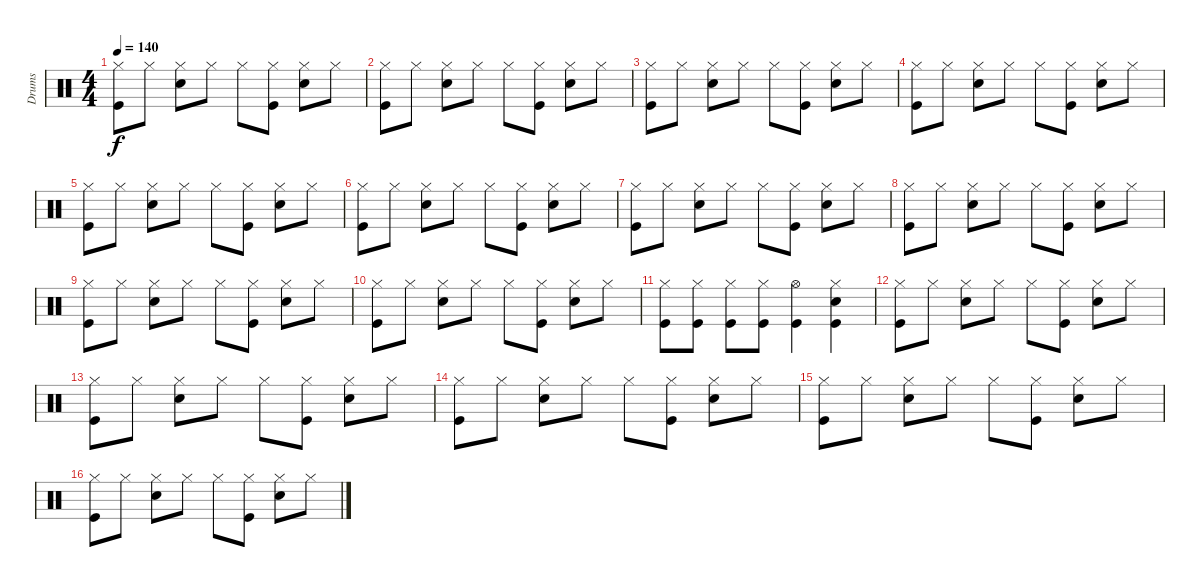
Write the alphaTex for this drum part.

\track ("Drums" "Drums") {instrument percussion}
\staff {score}
\articulation defaults
\ts (4 4)
\tempo 140
\clef neutral
\ks c
("Hi-Hat (closed)" "Kick (hit)").8{dy f} "Hi-Hat (closed)".8 ("Hi-Hat (closed)" "Snare (hit) 2").8 "Hi-Hat (closed)".8 "Hi-Hat (closed)".8 ("Hi-Hat (closed)" "Kick (hit)").8 ("Hi-Hat (closed)" "Snare (hit) 2").8 "Hi-Hat (closed)".8 |
("Hi-Hat (closed)" "Kick (hit)").8 "Hi-Hat (closed)".8 ("Hi-Hat (closed)" "Snare (hit) 2").8 "Hi-Hat (closed)".8 "Hi-Hat (closed)".8 ("Hi-Hat (closed)" "Kick (hit)").8 ("Hi-Hat (closed)" "Snare (hit) 2").8 "Hi-Hat (closed)".8 |
("Hi-Hat (closed)" "Kick (hit)").8 "Hi-Hat (closed)".8 ("Hi-Hat (closed)" "Snare (hit) 2").8 "Hi-Hat (closed)".8 "Hi-Hat (closed)".8 ("Hi-Hat (closed)" "Kick (hit)").8 ("Hi-Hat (closed)" "Snare (hit) 2").8 "Hi-Hat (closed)".8 |
("Hi-Hat (closed)" "Kick (hit)").8 "Hi-Hat (closed)".8 ("Hi-Hat (closed)" "Snare (hit) 2").8 "Hi-Hat (closed)".8 "Hi-Hat (closed)".8 ("Hi-Hat (closed)" "Kick (hit)").8 ("Hi-Hat (closed)" "Snare (hit) 2").8 "Hi-Hat (closed)".8 |
("Hi-Hat (closed)" "Kick (hit)").8 "Hi-Hat (closed)".8 ("Hi-Hat (closed)" "Snare (hit) 2").8 "Hi-Hat (closed)".8 "Hi-Hat (closed)".8 ("Hi-Hat (closed)" "Kick (hit)").8 ("Hi-Hat (closed)" "Snare (hit) 2").8 "Hi-Hat (closed)".8 |
("Hi-Hat (closed)" "Kick (hit)").8 "Hi-Hat (closed)".8 ("Hi-Hat (closed)" "Snare (hit) 2").8 "Hi-Hat (closed)".8 "Hi-Hat (closed)".8 ("Hi-Hat (closed)" "Kick (hit)").8 ("Hi-Hat (closed)" "Snare (hit) 2").8 "Hi-Hat (closed)".8 |
("Hi-Hat (closed)" "Kick (hit)").8 "Hi-Hat (closed)".8 ("Hi-Hat (closed)" "Snare (hit) 2").8 "Hi-Hat (closed)".8 "Hi-Hat (closed)".8 ("Hi-Hat (closed)" "Kick (hit)").8 ("Hi-Hat (closed)" "Snare (hit) 2").8 "Hi-Hat (closed)".8 |
("Hi-Hat (closed)" "Kick (hit)").8 "Hi-Hat (closed)".8 ("Hi-Hat (closed)" "Snare (hit) 2").8 "Hi-Hat (closed)".8 "Hi-Hat (closed)".8 ("Hi-Hat (closed)" "Kick (hit)").8 ("Hi-Hat (closed)" "Snare (hit) 2").8 "Hi-Hat (closed)".8 |
("Hi-Hat (closed)" "Kick (hit)").8 "Hi-Hat (closed)".8 ("Hi-Hat (closed)" "Snare (hit) 2").8 "Hi-Hat (closed)".8 "Hi-Hat (closed)".8 ("Hi-Hat (closed)" "Kick (hit)").8 ("Hi-Hat (closed)" "Snare (hit) 2").8 "Hi-Hat (closed)".8 |
("Hi-Hat (closed)" "Kick (hit)").8 "Hi-Hat (closed)".8 ("Hi-Hat (closed)" "Snare (hit) 2").8 "Hi-Hat (closed)".8 "Hi-Hat (closed)".8 ("Hi-Hat (closed)" "Kick (hit)").8 ("Hi-Hat (closed)" "Snare (hit) 2").8 "Hi-Hat (closed)".8 |
("Hi-Hat (closed)" "Kick (hit)").8 ("Hi-Hat (closed)" "Kick (hit)").8 ("Hi-Hat (closed)" "Kick (hit)").8 ("Hi-Hat (closed)" "Kick (hit)").8 ("Hi-Hat (open)" "Kick (hit)").4 ("Hi-Hat (closed)" "Snare (hit) 2" "Kick (hit)").4 |
("Hi-Hat (closed)" "Kick (hit)").8 "Hi-Hat (closed)".8 ("Hi-Hat (closed)" "Snare (hit) 2").8 "Hi-Hat (closed)".8 "Hi-Hat (closed)".8 ("Hi-Hat (closed)" "Kick (hit)").8 ("Hi-Hat (closed)" "Snare (hit) 2").8 "Hi-Hat (closed)".8 |
("Hi-Hat (closed)" "Kick (hit)").8 "Hi-Hat (closed)".8 ("Hi-Hat (closed)" "Snare (hit) 2").8 "Hi-Hat (closed)".8 "Hi-Hat (closed)".8 ("Hi-Hat (closed)" "Kick (hit)").8 ("Hi-Hat (closed)" "Snare (hit) 2").8 "Hi-Hat (closed)".8 |
("Hi-Hat (closed)" "Kick (hit)").8 "Hi-Hat (closed)".8 ("Hi-Hat (closed)" "Snare (hit) 2").8 "Hi-Hat (closed)".8 "Hi-Hat (closed)".8 ("Hi-Hat (closed)" "Kick (hit)").8 ("Hi-Hat (closed)" "Snare (hit) 2").8 "Hi-Hat (closed)".8 |
("Hi-Hat (closed)" "Kick (hit)").8 "Hi-Hat (closed)".8 ("Hi-Hat (closed)" "Snare (hit) 2").8 "Hi-Hat (closed)".8 "Hi-Hat (closed)".8 ("Hi-Hat (closed)" "Kick (hit)").8 ("Hi-Hat (closed)" "Snare (hit) 2").8 "Hi-Hat (closed)".8 |
("Hi-Hat (closed)" "Kick (hit)").8 "Hi-Hat (closed)".8 ("Hi-Hat (closed)" "Snare (hit) 2").8 "Hi-Hat (closed)".8 "Hi-Hat (closed)".8 ("Hi-Hat (closed)" "Kick (hit)").8 ("Hi-Hat (closed)" "Snare (hit) 2").8 "Hi-Hat (closed)".8
